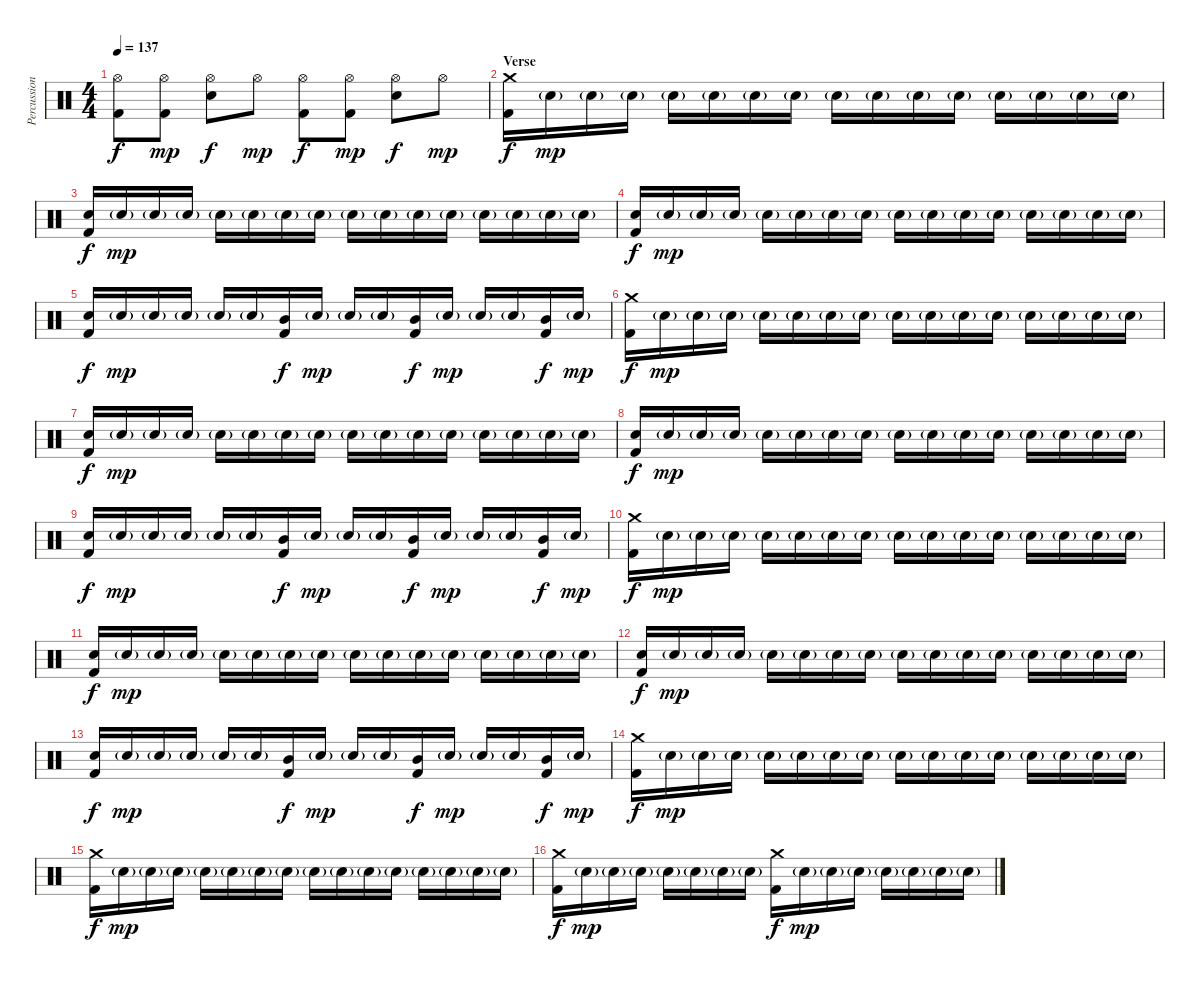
\track ("Percussion" "Percussion") {instrument percussion}
\staff {score}
\articulation defaults
\ts (4 4)
\tempo 137
\clef neutral
\ks c
("Hi-Hat (open)" "Kick (hit) 2").8{dy f} ("Hi-Hat (open)" "Kick (hit) 2").8{dy mp} ("Hi-Hat (open)" "Electric Snare (hit)").8{dy f} "Hi-Hat (open)".8{dy mp} ("Hi-Hat (open)" "Kick (hit) 2").8{dy f} ("Hi-Hat (open)" "Kick (hit) 2").8{dy mp} ("Hi-Hat (open)" "Electric Snare (hit)").8{dy f} "Hi-Hat (open)".8{dy mp} |
\section ("" "Verse")
("Crash medium (hit)" "Kick (hit) 2").16{dy f} "Electric Snare (hit)"{g}.16{dy mp} "Electric Snare (hit)"{g}.16 "Electric Snare (hit)"{g}.16 "Electric Snare (hit)"{g}.16 "Electric Snare (hit)"{g}.16 "Electric Snare (hit)"{g}.16 "Electric Snare (hit)"{g}.16 "Electric Snare (hit)"{g}.16 "Electric Snare (hit)"{g}.16 "Electric Snare (hit)"{g}.16 "Electric Snare (hit)"{g}.16 "Electric Snare (hit)"{g}.16 "Electric Snare (hit)"{g}.16 "Electric Snare (hit)"{g}.16 "Electric Snare (hit)"{g}.16 |
("Electric Snare (hit)" "Kick (hit) 2").16{dy f} "Electric Snare (hit)"{g}.16{dy mp} "Electric Snare (hit)"{g}.16 "Electric Snare (hit)"{g}.16 "Electric Snare (hit)"{g}.16 "Electric Snare (hit)"{g}.16 "Electric Snare (hit)"{g}.16 "Electric Snare (hit)"{g}.16 "Electric Snare (hit)"{g}.16 "Electric Snare (hit)"{g}.16 "Electric Snare (hit)"{g}.16 "Electric Snare (hit)"{g}.16 "Electric Snare (hit)"{g}.16 "Electric Snare (hit)"{g}.16 "Electric Snare (hit)"{g}.16 "Electric Snare (hit)"{g}.16 |
("Electric Snare (hit)" "Kick (hit) 2").16{dy f} "Electric Snare (hit)"{g}.16{dy mp} "Electric Snare (hit)"{g}.16 "Electric Snare (hit)"{g}.16 "Electric Snare (hit)"{g}.16 "Electric Snare (hit)"{g}.16 "Electric Snare (hit)"{g}.16 "Electric Snare (hit)"{g}.16 "Electric Snare (hit)"{g}.16 "Electric Snare (hit)"{g}.16 "Electric Snare (hit)"{g}.16 "Electric Snare (hit)"{g}.16 "Electric Snare (hit)"{g}.16 "Electric Snare (hit)"{g}.16 "Electric Snare (hit)"{g}.16 "Electric Snare (hit)"{g}.16 |
("Electric Snare (hit)" "Kick (hit) 2").16{dy f} "Electric Snare (hit)"{g}.16{dy mp} "Electric Snare (hit)"{g}.16 "Electric Snare (hit)"{g}.16 "Electric Snare (hit)"{g}.16 "Electric Snare (hit)"{g}.16 ("Mid Tom (hit)" "Kick (hit) 2").16{dy f} "Electric Snare (hit)"{g}.16{dy mp} "Electric Snare (hit)"{g}.16 "Electric Snare (hit)"{g}.16 ("Mid Tom (hit)" "Kick (hit) 2").16{dy f} "Electric Snare (hit)"{g}.16{dy mp} "Electric Snare (hit)"{g}.16 "Electric Snare (hit)"{g}.16 ("Mid Tom (hit)" "Kick (hit) 2").16{dy f} "Electric Snare (hit)"{g}.16{dy mp} |
("Crash medium (hit)" "Kick (hit) 2").16{dy f} "Electric Snare (hit)"{g}.16{dy mp} "Electric Snare (hit)"{g}.16 "Electric Snare (hit)"{g}.16 "Electric Snare (hit)"{g}.16 "Electric Snare (hit)"{g}.16 "Electric Snare (hit)"{g}.16 "Electric Snare (hit)"{g}.16 "Electric Snare (hit)"{g}.16 "Electric Snare (hit)"{g}.16 "Electric Snare (hit)"{g}.16 "Electric Snare (hit)"{g}.16 "Electric Snare (hit)"{g}.16 "Electric Snare (hit)"{g}.16 "Electric Snare (hit)"{g}.16 "Electric Snare (hit)"{g}.16 |
("Electric Snare (hit)" "Kick (hit) 2").16{dy f} "Electric Snare (hit)"{g}.16{dy mp} "Electric Snare (hit)"{g}.16 "Electric Snare (hit)"{g}.16 "Electric Snare (hit)"{g}.16 "Electric Snare (hit)"{g}.16 "Electric Snare (hit)"{g}.16 "Electric Snare (hit)"{g}.16 "Electric Snare (hit)"{g}.16 "Electric Snare (hit)"{g}.16 "Electric Snare (hit)"{g}.16 "Electric Snare (hit)"{g}.16 "Electric Snare (hit)"{g}.16 "Electric Snare (hit)"{g}.16 "Electric Snare (hit)"{g}.16 "Electric Snare (hit)"{g}.16 |
("Electric Snare (hit)" "Kick (hit) 2").16{dy f} "Electric Snare (hit)"{g}.16{dy mp} "Electric Snare (hit)"{g}.16 "Electric Snare (hit)"{g}.16 "Electric Snare (hit)"{g}.16 "Electric Snare (hit)"{g}.16 "Electric Snare (hit)"{g}.16 "Electric Snare (hit)"{g}.16 "Electric Snare (hit)"{g}.16 "Electric Snare (hit)"{g}.16 "Electric Snare (hit)"{g}.16 "Electric Snare (hit)"{g}.16 "Electric Snare (hit)"{g}.16 "Electric Snare (hit)"{g}.16 "Electric Snare (hit)"{g}.16 "Electric Snare (hit)"{g}.16 |
("Electric Snare (hit)" "Kick (hit) 2").16{dy f} "Electric Snare (hit)"{g}.16{dy mp} "Electric Snare (hit)"{g}.16 "Electric Snare (hit)"{g}.16 "Electric Snare (hit)"{g}.16 "Electric Snare (hit)"{g}.16 ("Mid Tom (hit)" "Kick (hit) 2").16{dy f} "Electric Snare (hit)"{g}.16{dy mp} "Electric Snare (hit)"{g}.16 "Electric Snare (hit)"{g}.16 ("Mid Tom (hit)" "Kick (hit) 2").16{dy f} "Electric Snare (hit)"{g}.16{dy mp} "Electric Snare (hit)"{g}.16 "Electric Snare (hit)"{g}.16 ("Mid Tom (hit)" "Kick (hit) 2").16{dy f} "Electric Snare (hit)"{g}.16{dy mp} |
("Crash medium (hit)" "Kick (hit) 2").16{dy f} "Electric Snare (hit)"{g}.16{dy mp} "Electric Snare (hit)"{g}.16 "Electric Snare (hit)"{g}.16 "Electric Snare (hit)"{g}.16 "Electric Snare (hit)"{g}.16 "Electric Snare (hit)"{g}.16 "Electric Snare (hit)"{g}.16 "Electric Snare (hit)"{g}.16 "Electric Snare (hit)"{g}.16 "Electric Snare (hit)"{g}.16 "Electric Snare (hit)"{g}.16 "Electric Snare (hit)"{g}.16 "Electric Snare (hit)"{g}.16 "Electric Snare (hit)"{g}.16 "Electric Snare (hit)"{g}.16 |
("Electric Snare (hit)" "Kick (hit) 2").16{dy f} "Electric Snare (hit)"{g}.16{dy mp} "Electric Snare (hit)"{g}.16 "Electric Snare (hit)"{g}.16 "Electric Snare (hit)"{g}.16 "Electric Snare (hit)"{g}.16 "Electric Snare (hit)"{g}.16 "Electric Snare (hit)"{g}.16 "Electric Snare (hit)"{g}.16 "Electric Snare (hit)"{g}.16 "Electric Snare (hit)"{g}.16 "Electric Snare (hit)"{g}.16 "Electric Snare (hit)"{g}.16 "Electric Snare (hit)"{g}.16 "Electric Snare (hit)"{g}.16 "Electric Snare (hit)"{g}.16 |
("Electric Snare (hit)" "Kick (hit) 2").16{dy f} "Electric Snare (hit)"{g}.16{dy mp} "Electric Snare (hit)"{g}.16 "Electric Snare (hit)"{g}.16 "Electric Snare (hit)"{g}.16 "Electric Snare (hit)"{g}.16 "Electric Snare (hit)"{g}.16 "Electric Snare (hit)"{g}.16 "Electric Snare (hit)"{g}.16 "Electric Snare (hit)"{g}.16 "Electric Snare (hit)"{g}.16 "Electric Snare (hit)"{g}.16 "Electric Snare (hit)"{g}.16 "Electric Snare (hit)"{g}.16 "Electric Snare (hit)"{g}.16 "Electric Snare (hit)"{g}.16 |
("Electric Snare (hit)" "Kick (hit) 2").16{dy f} "Electric Snare (hit)"{g}.16{dy mp} "Electric Snare (hit)"{g}.16 "Electric Snare (hit)"{g}.16 "Electric Snare (hit)"{g}.16 "Electric Snare (hit)"{g}.16 ("Mid Tom (hit)" "Kick (hit) 2").16{dy f} "Electric Snare (hit)"{g}.16{dy mp} "Electric Snare (hit)"{g}.16 "Electric Snare (hit)"{g}.16 ("Mid Tom (hit)" "Kick (hit) 2").16{dy f} "Electric Snare (hit)"{g}.16{dy mp} "Electric Snare (hit)"{g}.16 "Electric Snare (hit)"{g}.16 ("Mid Tom (hit)" "Kick (hit) 2").16{dy f} "Electric Snare (hit)"{g}.16{dy mp} |
("Crash medium (hit)" "Kick (hit) 2").16{dy f} "Electric Snare (hit)"{g}.16{dy mp} "Electric Snare (hit)"{g}.16 "Electric Snare (hit)"{g}.16 "Electric Snare (hit)"{g}.16 "Electric Snare (hit)"{g}.16 "Electric Snare (hit)"{g}.16 "Electric Snare (hit)"{g}.16 "Electric Snare (hit)"{g}.16 "Electric Snare (hit)"{g}.16 "Electric Snare (hit)"{g}.16 "Electric Snare (hit)"{g}.16 "Electric Snare (hit)"{g}.16 "Electric Snare (hit)"{g}.16 "Electric Snare (hit)"{g}.16 "Electric Snare (hit)"{g}.16 |
("Crash medium (hit)" "Kick (hit) 2").16{dy f} "Electric Snare (hit)"{g}.16{dy mp} "Electric Snare (hit)"{g}.16 "Electric Snare (hit)"{g}.16 "Electric Snare (hit)"{g}.16 "Electric Snare (hit)"{g}.16 "Electric Snare (hit)"{g}.16 "Electric Snare (hit)"{g}.16 "Electric Snare (hit)"{g}.16 "Electric Snare (hit)"{g}.16 "Electric Snare (hit)"{g}.16 "Electric Snare (hit)"{g}.16 "Electric Snare (hit)"{g}.16 "Electric Snare (hit)"{g}.16 "Electric Snare (hit)"{g}.16 "Electric Snare (hit)"{g}.16 |
("Crash medium (hit)" "Kick (hit) 2").16{dy f} "Electric Snare (hit)"{g}.16{dy mp} "Electric Snare (hit)"{g}.16 "Electric Snare (hit)"{g}.16 "Electric Snare (hit)"{g}.16 "Electric Snare (hit)"{g}.16 "Electric Snare (hit)"{g}.16 "Electric Snare (hit)"{g}.16 ("Crash medium (hit)" "Kick (hit) 2").16{dy f} "Electric Snare (hit)"{g}.16{dy mp} "Electric Snare (hit)"{g}.16 "Electric Snare (hit)"{g}.16 "Electric Snare (hit)"{g}.16 "Electric Snare (hit)"{g}.16 "Electric Snare (hit)"{g}.16 "Electric Snare (hit)"{g}.16
